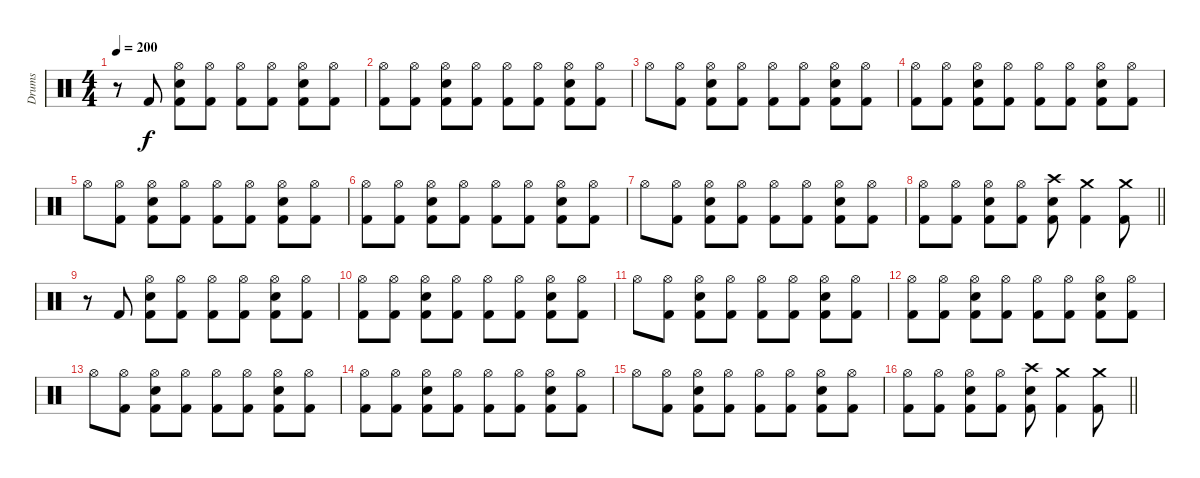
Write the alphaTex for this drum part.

\track ("Drums" "Drums") {instrument percussion}
\staff {score}
\articulation defaults
\ts (4 4)
\tempo 200
\clef neutral
\ks c
r.8{dy f} "Kick (hit) 2".8 ("Hi-Hat (open)" "Electric Snare (hit)" "Kick (hit) 2").8 ("Hi-Hat (open)" "Kick (hit) 2").8 ("Hi-Hat (open)" "Kick (hit) 2").8 ("Hi-Hat (open)" "Kick (hit) 2").8 ("Hi-Hat (open)" "Electric Snare (hit)" "Kick (hit) 2").8 ("Hi-Hat (open)" "Kick (hit) 2").8 |
("Hi-Hat (open)" "Kick (hit) 2").8 ("Hi-Hat (open)" "Kick (hit) 2").8 ("Hi-Hat (open)" "Electric Snare (hit)" "Kick (hit) 2").8 ("Hi-Hat (open)" "Kick (hit) 2").8 ("Hi-Hat (open)" "Kick (hit) 2").8 ("Hi-Hat (open)" "Kick (hit) 2").8 ("Hi-Hat (open)" "Electric Snare (hit)" "Kick (hit) 2").8 ("Hi-Hat (open)" "Kick (hit) 2").8 |
"Hi-Hat (open)".8 ("Hi-Hat (open)" "Kick (hit) 2").8 ("Hi-Hat (open)" "Electric Snare (hit)" "Kick (hit) 2").8 ("Hi-Hat (open)" "Kick (hit) 2").8 ("Hi-Hat (open)" "Kick (hit) 2").8 ("Hi-Hat (open)" "Kick (hit) 2").8 ("Hi-Hat (open)" "Electric Snare (hit)" "Kick (hit) 2").8 ("Hi-Hat (open)" "Kick (hit) 2").8 |
("Hi-Hat (open)" "Kick (hit) 2").8 ("Hi-Hat (open)" "Kick (hit) 2").8 ("Hi-Hat (open)" "Electric Snare (hit)" "Kick (hit) 2").8 ("Hi-Hat (open)" "Kick (hit) 2").8 ("Hi-Hat (open)" "Kick (hit) 2").8 ("Hi-Hat (open)" "Kick (hit) 2").8 ("Hi-Hat (open)" "Electric Snare (hit)" "Kick (hit) 2").8 ("Hi-Hat (open)" "Kick (hit) 2").8 |
"Hi-Hat (open)".8 ("Hi-Hat (open)" "Kick (hit) 2").8 ("Hi-Hat (open)" "Electric Snare (hit)" "Kick (hit) 2").8 ("Hi-Hat (open)" "Kick (hit) 2").8 ("Hi-Hat (open)" "Kick (hit) 2").8 ("Hi-Hat (open)" "Kick (hit) 2").8 ("Hi-Hat (open)" "Electric Snare (hit)" "Kick (hit) 2").8 ("Hi-Hat (open)" "Kick (hit) 2").8 |
("Hi-Hat (open)" "Kick (hit) 2").8 ("Hi-Hat (open)" "Kick (hit) 2").8 ("Hi-Hat (open)" "Electric Snare (hit)" "Kick (hit) 2").8 ("Hi-Hat (open)" "Kick (hit) 2").8 ("Hi-Hat (open)" "Kick (hit) 2").8 ("Hi-Hat (open)" "Kick (hit) 2").8 ("Hi-Hat (open)" "Electric Snare (hit)" "Kick (hit) 2").8 ("Hi-Hat (open)" "Kick (hit) 2").8 |
"Hi-Hat (open)".8 ("Hi-Hat (open)" "Kick (hit) 2").8 ("Hi-Hat (open)" "Electric Snare (hit)" "Kick (hit) 2").8 ("Hi-Hat (open)" "Kick (hit) 2").8 ("Hi-Hat (open)" "Kick (hit) 2").8 ("Hi-Hat (open)" "Kick (hit) 2").8 ("Hi-Hat (open)" "Electric Snare (hit)" "Kick (hit) 2").8 ("Hi-Hat (open)" "Kick (hit) 2").8 |
\barLineRight lightlight
("Hi-Hat (open)" "Kick (hit) 2").8 ("Hi-Hat (open)" "Kick (hit) 2").8 ("Hi-Hat (open)" "Electric Snare (hit)" "Kick (hit) 2").8 ("Hi-Hat (open)" "Kick (hit) 2").8 ("Crash high (hit)" "Electric Snare (hit)" "Kick (hit) 2").8 ("Crash medium (hit)" "Kick (hit) 2").4 ("Crash medium (hit)" "Kick (hit) 2").8 |
\section ("" "")
r.8 "Kick (hit) 2".8 ("Hi-Hat (open)" "Electric Snare (hit)" "Kick (hit) 2").8 ("Hi-Hat (open)" "Kick (hit) 2").8 ("Hi-Hat (open)" "Kick (hit) 2").8 ("Hi-Hat (open)" "Kick (hit) 2").8 ("Hi-Hat (open)" "Electric Snare (hit)" "Kick (hit) 2").8 ("Hi-Hat (open)" "Kick (hit) 2").8 |
("Hi-Hat (open)" "Kick (hit) 2").8 ("Hi-Hat (open)" "Kick (hit) 2").8 ("Hi-Hat (open)" "Electric Snare (hit)" "Kick (hit) 2").8 ("Hi-Hat (open)" "Kick (hit) 2").8 ("Hi-Hat (open)" "Kick (hit) 2").8 ("Hi-Hat (open)" "Kick (hit) 2").8 ("Hi-Hat (open)" "Electric Snare (hit)" "Kick (hit) 2").8 ("Hi-Hat (open)" "Kick (hit) 2").8 |
"Hi-Hat (open)".8 ("Hi-Hat (open)" "Kick (hit) 2").8 ("Hi-Hat (open)" "Electric Snare (hit)" "Kick (hit) 2").8 ("Hi-Hat (open)" "Kick (hit) 2").8 ("Hi-Hat (open)" "Kick (hit) 2").8 ("Hi-Hat (open)" "Kick (hit) 2").8 ("Hi-Hat (open)" "Electric Snare (hit)" "Kick (hit) 2").8 ("Hi-Hat (open)" "Kick (hit) 2").8 |
("Hi-Hat (open)" "Kick (hit) 2").8 ("Hi-Hat (open)" "Kick (hit) 2").8 ("Hi-Hat (open)" "Electric Snare (hit)" "Kick (hit) 2").8 ("Hi-Hat (open)" "Kick (hit) 2").8 ("Hi-Hat (open)" "Kick (hit) 2").8 ("Hi-Hat (open)" "Kick (hit) 2").8 ("Hi-Hat (open)" "Electric Snare (hit)" "Kick (hit) 2").8 ("Hi-Hat (open)" "Kick (hit) 2").8 |
"Hi-Hat (open)".8 ("Hi-Hat (open)" "Kick (hit) 2").8 ("Hi-Hat (open)" "Electric Snare (hit)" "Kick (hit) 2").8 ("Hi-Hat (open)" "Kick (hit) 2").8 ("Hi-Hat (open)" "Kick (hit) 2").8 ("Hi-Hat (open)" "Kick (hit) 2").8 ("Hi-Hat (open)" "Electric Snare (hit)" "Kick (hit) 2").8 ("Hi-Hat (open)" "Kick (hit) 2").8 |
("Hi-Hat (open)" "Kick (hit) 2").8 ("Hi-Hat (open)" "Kick (hit) 2").8 ("Hi-Hat (open)" "Electric Snare (hit)" "Kick (hit) 2").8 ("Hi-Hat (open)" "Kick (hit) 2").8 ("Hi-Hat (open)" "Kick (hit) 2").8 ("Hi-Hat (open)" "Kick (hit) 2").8 ("Hi-Hat (open)" "Electric Snare (hit)" "Kick (hit) 2").8 ("Hi-Hat (open)" "Kick (hit) 2").8 |
"Hi-Hat (open)".8 ("Hi-Hat (open)" "Kick (hit) 2").8 ("Hi-Hat (open)" "Electric Snare (hit)" "Kick (hit) 2").8 ("Hi-Hat (open)" "Kick (hit) 2").8 ("Hi-Hat (open)" "Kick (hit) 2").8 ("Hi-Hat (open)" "Kick (hit) 2").8 ("Hi-Hat (open)" "Electric Snare (hit)" "Kick (hit) 2").8 ("Hi-Hat (open)" "Kick (hit) 2").8 |
\barLineRight lightlight
("Hi-Hat (open)" "Kick (hit) 2").8 ("Hi-Hat (open)" "Kick (hit) 2").8 ("Hi-Hat (open)" "Electric Snare (hit)" "Kick (hit) 2").8 ("Hi-Hat (open)" "Kick (hit) 2").8 ("Crash high (hit)" "Electric Snare (hit)" "Kick (hit) 2").8 ("Crash medium (hit)" "Kick (hit) 2").4 ("Crash medium (hit)" "Kick (hit) 2").8
